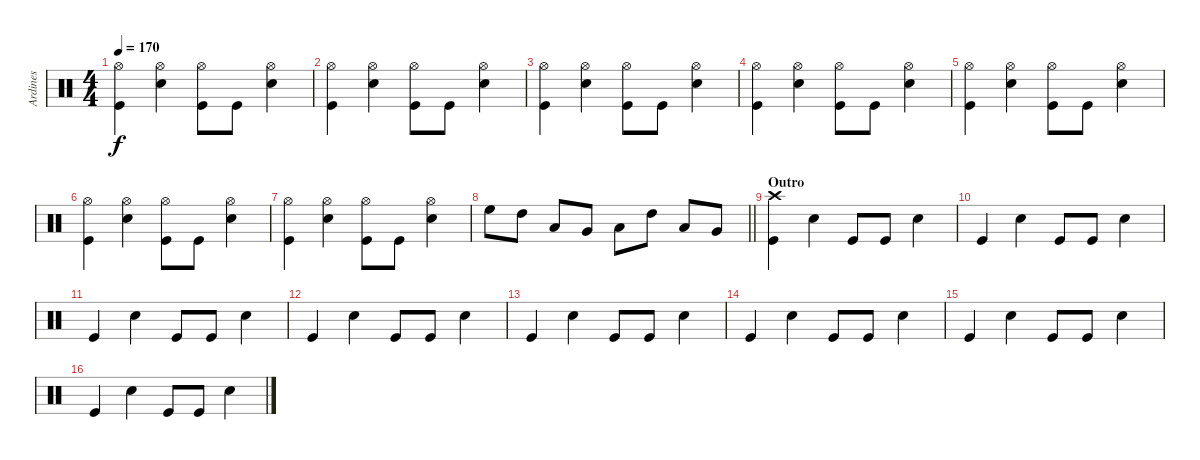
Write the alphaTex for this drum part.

\track ("Ardines" "Ardines") {instrument percussion}
\staff {score}
\articulation defaults
\ts (4 4)
\tempo 170
\clef neutral
\ks c
("Kick (hit)" "Hi-Hat (open)").4{dy f} ("Snare (hit) 2" "Hi-Hat (open)").4 ("Kick (hit)" "Hi-Hat (open)").8 "Kick (hit)".8 ("Snare (hit) 2" "Hi-Hat (open)").4 |
("Kick (hit)" "Hi-Hat (open)").4 ("Snare (hit) 2" "Hi-Hat (open)").4 ("Kick (hit)" "Hi-Hat (open)").8 "Kick (hit)".8 ("Snare (hit) 2" "Hi-Hat (open)").4 |
("Kick (hit)" "Hi-Hat (open)").4 ("Snare (hit) 2" "Hi-Hat (open)").4 ("Kick (hit)" "Hi-Hat (open)").8 "Kick (hit)".8 ("Snare (hit) 2" "Hi-Hat (open)").4 |
("Kick (hit)" "Hi-Hat (open)").4 ("Snare (hit) 2" "Hi-Hat (open)").4 ("Kick (hit)" "Hi-Hat (open)").8 "Kick (hit)".8 ("Snare (hit) 2" "Hi-Hat (open)").4 |
("Kick (hit)" "Hi-Hat (open)").4 ("Snare (hit) 2" "Hi-Hat (open)").4 ("Kick (hit)" "Hi-Hat (open)").8 "Kick (hit)".8 ("Snare (hit) 2" "Hi-Hat (open)").4 |
("Kick (hit)" "Hi-Hat (open)").4 ("Snare (hit) 2" "Hi-Hat (open)").4 ("Kick (hit)" "Hi-Hat (open)").8 "Kick (hit)".8 ("Snare (hit) 2" "Hi-Hat (open)").4 |
("Kick (hit)" "Hi-Hat (open)").4 ("Snare (hit) 2" "Hi-Hat (open)").4 ("Kick (hit)" "Hi-Hat (open)").8 "Kick (hit)".8 ("Snare (hit) 2" "Hi-Hat (open)").4 |
\barLineRight lightlight "High Floor Tom (hit)".8 "High Tom (hit)".8 "Low Tom (hit)".8 "Very Low Tom (hit)".8 "Low Floor Tom (hit)".8 "High Tom (hit)".8 "Low Tom (hit)".8 "Very Low Tom (hit)".8
|
\section ("" "Outro")
("Crash high (hit)" "Kick (hit)").4 "Snare (hit) 2".4 "Kick (hit)".8 "Kick (hit)".8 "Snare (hit) 2".4 |
"Kick (hit)".4 "Snare (hit) 2".4 "Kick (hit)".8 "Kick (hit)".8 "Snare (hit) 2".4 |
"Kick (hit)".4 "Snare (hit) 2".4 "Kick (hit)".8 "Kick (hit)".8 "Snare (hit) 2".4 |
"Kick (hit)".4 "Snare (hit) 2".4 "Kick (hit)".8 "Kick (hit)".8 "Snare (hit) 2".4 |
"Kick (hit)".4 "Snare (hit) 2".4 "Kick (hit)".8 "Kick (hit)".8 "Snare (hit) 2".4 |
"Kick (hit)".4 "Snare (hit) 2".4 "Kick (hit)".8 "Kick (hit)".8 "Snare (hit) 2".4 |
"Kick (hit)".4 "Snare (hit) 2".4 "Kick (hit)".8 "Kick (hit)".8 "Snare (hit) 2".4 |
"Kick (hit)".4 "Snare (hit) 2".4 "Kick (hit)".8 "Kick (hit)".8 "Snare (hit) 2".4
